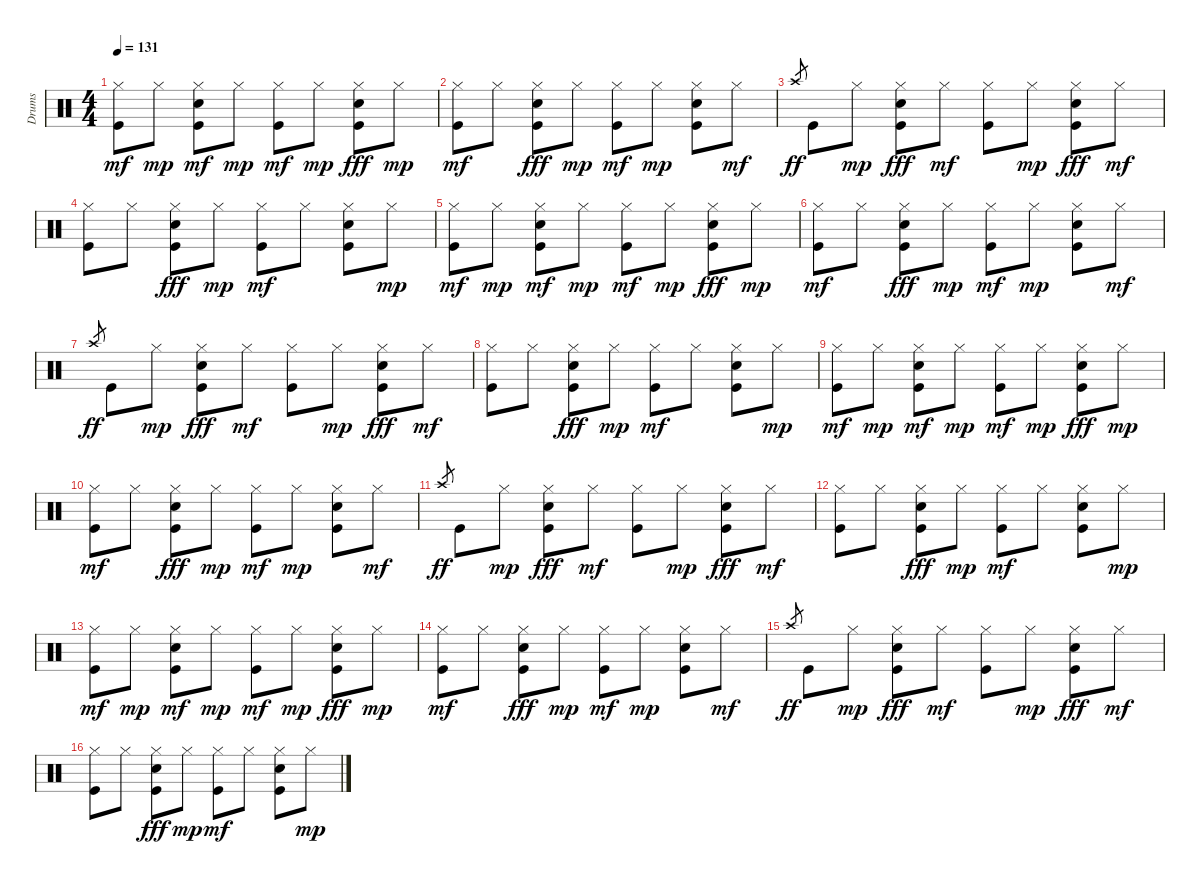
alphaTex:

\track ("Drums" "Drums") {instrument percussion}
\staff {score}
\articulation defaults
\ts (4 4)
\tempo 131
\clef neutral
\ks c
("Kick (hit)" "Hi-Hat (closed)").8{dy mf} "Hi-Hat (closed)".8{dy mp} ("Kick (hit)" "Snare (hit) 2" "Hi-Hat (closed)").8{dy mf} "Hi-Hat (closed)".8{dy mp} ("Kick (hit)" "Hi-Hat (closed)").8{dy mf} "Hi-Hat (closed)".8{dy mp} ("Kick (hit)" "Snare (hit) 2" "Hi-Hat (closed)").8{dy fff} "Hi-Hat (closed)".8{dy mp} |
("Kick (hit)" "Hi-Hat (closed)").8{dy mf} "Hi-Hat (closed)".8 ("Kick (hit)" "Snare (hit) 2" "Hi-Hat (closed)").8{dy fff} "Hi-Hat (closed)".8{dy mp} ("Kick (hit)" "Hi-Hat (closed)").8{dy mf} "Hi-Hat (closed)".8{dy mp} ("Kick (hit)" "Snare (hit) 2" "Hi-Hat (closed)").8 "Hi-Hat (closed)".8{dy mf} |
"Crash high (hit)".8{gr dy ff} "Kick (hit)".8 "Hi-Hat (closed)".8{dy mp} ("Kick (hit)" "Snare (hit) 2" "Hi-Hat (closed)").8{dy fff} "Hi-Hat (closed)".8{dy mf} ("Kick (hit)" "Hi-Hat (closed)").8 "Hi-Hat (closed)".8{dy mp} ("Kick (hit)" "Snare (hit) 2" "Hi-Hat (closed)").8{dy fff} "Hi-Hat (closed)".8{dy mf} |
("Kick (hit)" "Hi-Hat (closed)").8 "Hi-Hat (closed)".8 ("Kick (hit)" "Snare (hit) 2" "Hi-Hat (closed)").8{dy fff} "Hi-Hat (closed)".8{dy mp} ("Kick (hit)" "Hi-Hat (closed)").8{dy mf} "Hi-Hat (closed)".8 ("Kick (hit)" "Snare (hit) 2" "Hi-Hat (closed)").8 "Hi-Hat (closed)".8{dy mp} |
("Kick (hit)" "Hi-Hat (closed)").8{dy mf} "Hi-Hat (closed)".8{dy mp} ("Kick (hit)" "Snare (hit) 2" "Hi-Hat (closed)").8{dy mf} "Hi-Hat (closed)".8{dy mp} ("Kick (hit)" "Hi-Hat (closed)").8{dy mf} "Hi-Hat (closed)".8{dy mp} ("Kick (hit)" "Snare (hit) 2" "Hi-Hat (closed)").8{dy fff} "Hi-Hat (closed)".8{dy mp} |
("Kick (hit)" "Hi-Hat (closed)").8{dy mf} "Hi-Hat (closed)".8 ("Kick (hit)" "Snare (hit) 2" "Hi-Hat (closed)").8{dy fff} "Hi-Hat (closed)".8{dy mp} ("Kick (hit)" "Hi-Hat (closed)").8{dy mf} "Hi-Hat (closed)".8{dy mp} ("Kick (hit)" "Snare (hit) 2" "Hi-Hat (closed)").8 "Hi-Hat (closed)".8{dy mf} |
"Crash high (hit)".8{gr dy ff} "Kick (hit)".8 "Hi-Hat (closed)".8{dy mp} ("Kick (hit)" "Snare (hit) 2" "Hi-Hat (closed)").8{dy fff} "Hi-Hat (closed)".8{dy mf} ("Kick (hit)" "Hi-Hat (closed)").8 "Hi-Hat (closed)".8{dy mp} ("Kick (hit)" "Snare (hit) 2" "Hi-Hat (closed)").8{dy fff} "Hi-Hat (closed)".8{dy mf} |
("Kick (hit)" "Hi-Hat (closed)").8 "Hi-Hat (closed)".8 ("Kick (hit)" "Snare (hit) 2" "Hi-Hat (closed)").8{dy fff} "Hi-Hat (closed)".8{dy mp} ("Kick (hit)" "Hi-Hat (closed)").8{dy mf} "Hi-Hat (closed)".8 ("Kick (hit)" "Snare (hit) 2" "Hi-Hat (closed)").8 "Hi-Hat (closed)".8{dy mp} |
("Kick (hit)" "Hi-Hat (closed)").8{dy mf} "Hi-Hat (closed)".8{dy mp} ("Kick (hit)" "Snare (hit) 2" "Hi-Hat (closed)").8{dy mf} "Hi-Hat (closed)".8{dy mp} ("Kick (hit)" "Hi-Hat (closed)").8{dy mf} "Hi-Hat (closed)".8{dy mp} ("Kick (hit)" "Snare (hit) 2" "Hi-Hat (closed)").8{dy fff} "Hi-Hat (closed)".8{dy mp} |
("Kick (hit)" "Hi-Hat (closed)").8{dy mf} "Hi-Hat (closed)".8 ("Kick (hit)" "Snare (hit) 2" "Hi-Hat (closed)").8{dy fff} "Hi-Hat (closed)".8{dy mp} ("Kick (hit)" "Hi-Hat (closed)").8{dy mf} "Hi-Hat (closed)".8{dy mp} ("Kick (hit)" "Snare (hit) 2" "Hi-Hat (closed)").8 "Hi-Hat (closed)".8{dy mf} |
"Crash high (hit)".8{gr dy ff} "Kick (hit)".8 "Hi-Hat (closed)".8{dy mp} ("Kick (hit)" "Snare (hit) 2" "Hi-Hat (closed)").8{dy fff} "Hi-Hat (closed)".8{dy mf} ("Kick (hit)" "Hi-Hat (closed)").8 "Hi-Hat (closed)".8{dy mp} ("Kick (hit)" "Snare (hit) 2" "Hi-Hat (closed)").8{dy fff} "Hi-Hat (closed)".8{dy mf} |
("Kick (hit)" "Hi-Hat (closed)").8 "Hi-Hat (closed)".8 ("Kick (hit)" "Snare (hit) 2" "Hi-Hat (closed)").8{dy fff} "Hi-Hat (closed)".8{dy mp} ("Kick (hit)" "Hi-Hat (closed)").8{dy mf} "Hi-Hat (closed)".8 ("Kick (hit)" "Snare (hit) 2" "Hi-Hat (closed)").8 "Hi-Hat (closed)".8{dy mp} |
("Kick (hit)" "Hi-Hat (closed)").8{dy mf} "Hi-Hat (closed)".8{dy mp} ("Kick (hit)" "Snare (hit) 2" "Hi-Hat (closed)").8{dy mf} "Hi-Hat (closed)".8{dy mp} ("Kick (hit)" "Hi-Hat (closed)").8{dy mf} "Hi-Hat (closed)".8{dy mp} ("Kick (hit)" "Snare (hit) 2" "Hi-Hat (closed)").8{dy fff} "Hi-Hat (closed)".8{dy mp} |
("Kick (hit)" "Hi-Hat (closed)").8{dy mf} "Hi-Hat (closed)".8 ("Kick (hit)" "Snare (hit) 2" "Hi-Hat (closed)").8{dy fff} "Hi-Hat (closed)".8{dy mp} ("Kick (hit)" "Hi-Hat (closed)").8{dy mf} "Hi-Hat (closed)".8{dy mp} ("Kick (hit)" "Snare (hit) 2" "Hi-Hat (closed)").8 "Hi-Hat (closed)".8{dy mf} |
"Crash high (hit)".8{gr dy ff} "Kick (hit)".8 "Hi-Hat (closed)".8{dy mp} ("Kick (hit)" "Snare (hit) 2" "Hi-Hat (closed)").8{dy fff} "Hi-Hat (closed)".8{dy mf} ("Kick (hit)" "Hi-Hat (closed)").8 "Hi-Hat (closed)".8{dy mp} ("Kick (hit)" "Snare (hit) 2" "Hi-Hat (closed)").8{dy fff} "Hi-Hat (closed)".8{dy mf} |
("Kick (hit)" "Hi-Hat (closed)").8 "Hi-Hat (closed)".8 ("Kick (hit)" "Snare (hit) 2" "Hi-Hat (closed)").8{dy fff} "Hi-Hat (closed)".8{dy mp} ("Kick (hit)" "Hi-Hat (closed)").8{dy mf} "Hi-Hat (closed)".8 ("Kick (hit)" "Snare (hit) 2" "Hi-Hat (closed)").8 "Hi-Hat (closed)".8{dy mp}
